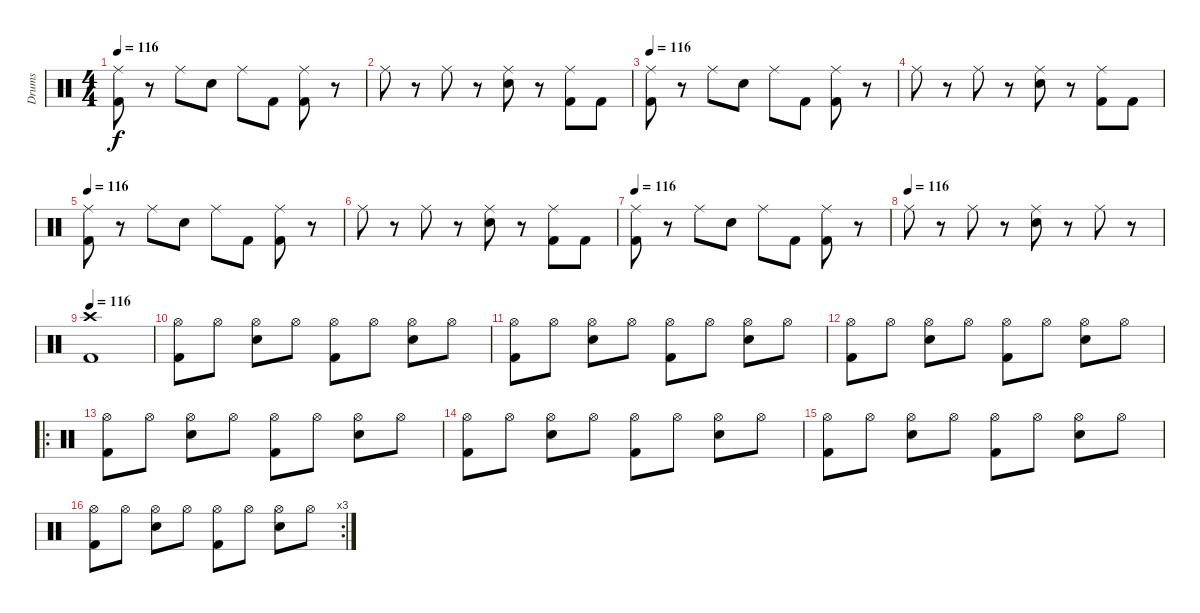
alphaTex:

\track ("Drums" "Drums") {instrument percussion}
\staff {score}
\articulation defaults
\ts (4 4)
\tempo 116
\clef neutral
\ks c
("Ride (middle)" "Kick (hit) 2").8{dy f} r.8 "Ride (middle)".8 "Electric Snare (hit)".8 "Ride (middle)".8 "Kick (hit) 2".8 ("Ride (middle)" "Kick (hit) 2").8 r.8 |
"Ride (middle)".8 r.8 "Ride (middle)".8 r.8 ("Ride (middle)" "Electric Snare (hit)").8 r.8 ("Ride (middle)" "Kick (hit) 2").8 "Kick (hit) 2".8 |
\tempo 116
("Ride (middle)" "Kick (hit) 2").8 r.8 "Ride (middle)".8 "Electric Snare (hit)".8 "Ride (middle)".8 "Kick (hit) 2".8 ("Ride (middle)" "Kick (hit) 2").8 r.8 |
"Ride (middle)".8 r.8 "Ride (middle)".8 r.8 ("Ride (middle)" "Electric Snare (hit)").8 r.8 ("Ride (middle)" "Kick (hit) 2").8 "Kick (hit) 2".8 |
\tempo 116
("Ride (middle)" "Kick (hit) 2").8 r.8 "Ride (middle)".8 "Electric Snare (hit)".8 "Ride (middle)".8 "Kick (hit) 2".8 ("Ride (middle)" "Kick (hit) 2").8 r.8 |
"Ride (middle)".8 r.8 "Ride (middle)".8 r.8 ("Ride (middle)" "Electric Snare (hit)").8 r.8 ("Ride (middle)" "Kick (hit) 2").8 "Kick (hit) 2".8 |
\tempo 116
("Ride (middle)" "Kick (hit) 2").8 r.8 "Ride (middle)".8 "Electric Snare (hit)".8 "Ride (middle)".8 "Kick (hit) 2".8 ("Ride (middle)" "Kick (hit) 2").8 r.8 |
\tempo (116)
"Ride (middle)".8 r.8 "Ride (middle)".8 r.8 ("Ride (middle)" "Electric Snare (hit)").8 r.8 "Ride (middle)".8 r.8 |
\tempo 116
("Crash high (hit)" "Kick (hit) 2").1 |
("Hi-Hat (open)" "Kick (hit) 2").8 "Hi-Hat (open)".8 ("Hi-Hat (open)" "Electric Snare (hit)").8 "Hi-Hat (open)".8 ("Hi-Hat (open)" "Kick (hit) 2").8 "Hi-Hat (open)".8 ("Hi-Hat (open)" "Electric Snare (hit)").8 "Hi-Hat (open)".8 |
("Hi-Hat (open)" "Kick (hit) 2").8 "Hi-Hat (open)".8 ("Hi-Hat (open)" "Electric Snare (hit)").8 "Hi-Hat (open)".8 ("Hi-Hat (open)" "Kick (hit) 2").8 "Hi-Hat (open)".8 ("Hi-Hat (open)" "Electric Snare (hit)").8 "Hi-Hat (open)".8 |
("Hi-Hat (open)" "Kick (hit) 2").8 "Hi-Hat (open)".8 ("Hi-Hat (open)" "Electric Snare (hit)").8 "Hi-Hat (open)".8 ("Hi-Hat (open)" "Kick (hit) 2").8 "Hi-Hat (open)".8 ("Hi-Hat (open)" "Electric Snare (hit)").8 "Hi-Hat (open)".8 |
\ro
("Hi-Hat (open)" "Kick (hit) 2").8 "Hi-Hat (open)".8 ("Hi-Hat (open)" "Electric Snare (hit)").8 "Hi-Hat (open)".8 ("Hi-Hat (open)" "Kick (hit) 2").8 "Hi-Hat (open)".8 ("Hi-Hat (open)" "Electric Snare (hit)").8 "Hi-Hat (open)".8 |
("Hi-Hat (open)" "Kick (hit) 2").8 "Hi-Hat (open)".8 ("Hi-Hat (open)" "Electric Snare (hit)").8 "Hi-Hat (open)".8 ("Hi-Hat (open)" "Kick (hit) 2").8 "Hi-Hat (open)".8 ("Hi-Hat (open)" "Electric Snare (hit)").8 "Hi-Hat (open)".8 |
("Hi-Hat (open)" "Kick (hit) 2").8 "Hi-Hat (open)".8 ("Hi-Hat (open)" "Electric Snare (hit)").8 "Hi-Hat (open)".8 ("Hi-Hat (open)" "Kick (hit) 2").8 "Hi-Hat (open)".8 ("Hi-Hat (open)" "Electric Snare (hit)").8 "Hi-Hat (open)".8 |
\rc 3
("Hi-Hat (open)" "Kick (hit) 2").8 "Hi-Hat (open)".8 ("Hi-Hat (open)" "Electric Snare (hit)").8 "Hi-Hat (open)".8 ("Hi-Hat (open)" "Kick (hit) 2").8 "Hi-Hat (open)".8 ("Hi-Hat (open)" "Electric Snare (hit)").8 "Hi-Hat (open)".8
